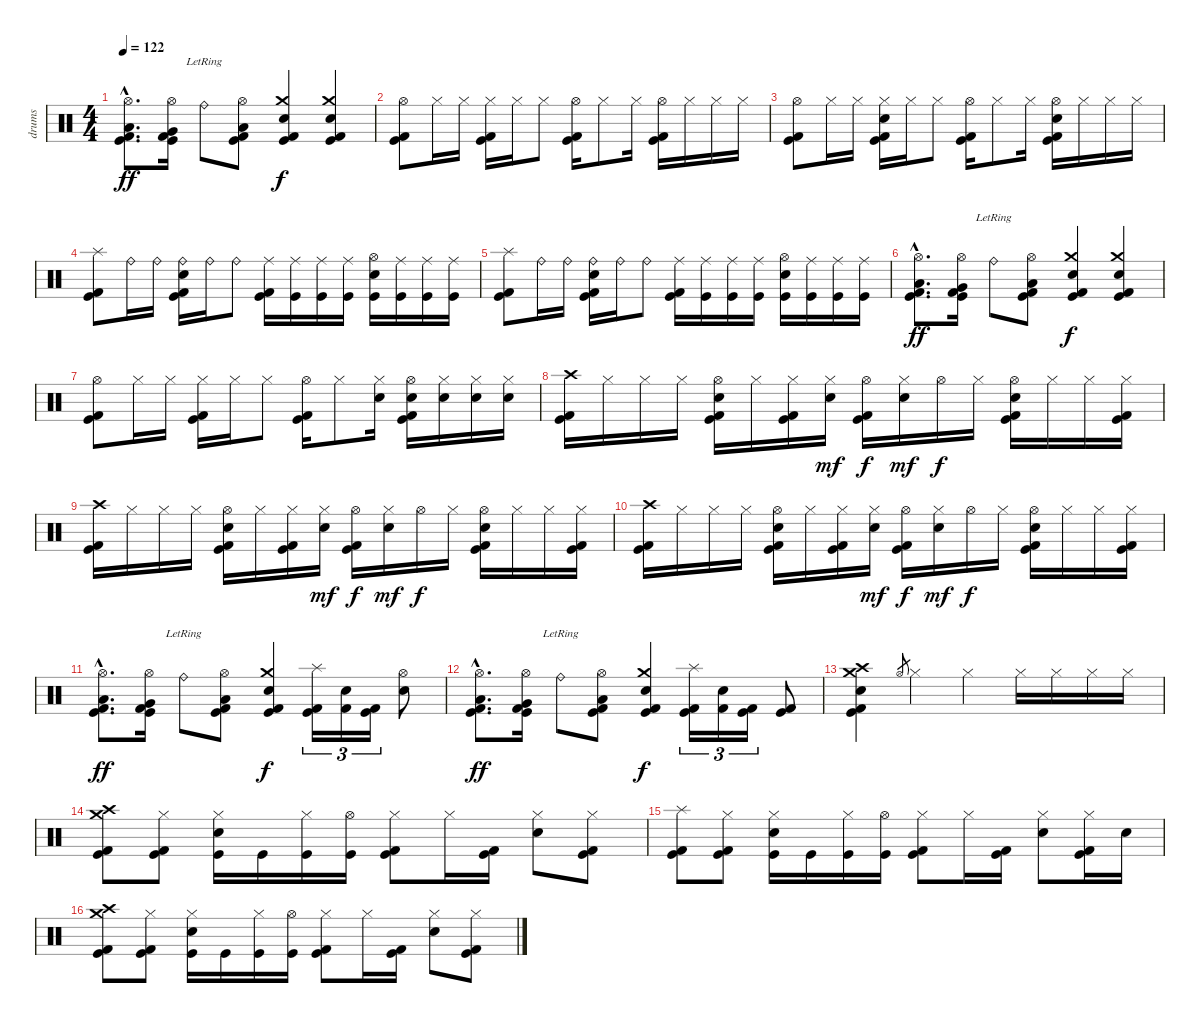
\track ("drums" "drums") {instrument percussion}
\staff {score}
\articulation defaults
\ts (4 4)
\tempo 122
\clef neutral
\ks c
("Hi-Hat (open)"{hac} "Low Floor Tom (hit)"{hac} "Kick (hit) 2"{hac} "Kick (hit)"{hac}).8{d dy ff} ("Hi-Hat (open)" "Very Low Tom (hit)" "Kick (hit) 2" "Kick (hit)").16 "Ride (bell)"{lr}.8 ("Hi-Hat (open)" "Low Tom (hit)" "Kick (hit) 2" "Kick (hit)").8 ("Crash medium (hit)" "Electric Snare (hit)" "Kick (hit) 2" "Kick (hit)").4{dy f} ("Crash medium (hit)" "Electric Snare (hit)" "Kick (hit)" "Kick (hit) 2").4 |
("Hi-Hat (open)" "Kick (hit) 2" "Kick (hit)").8 "Hi-Hat (closed)".16 "Hi-Hat (closed)".16 ("Hi-Hat (closed)" "Kick (hit) 2" "Kick (hit)").16 "Hi-Hat (closed)".16 "Hi-Hat (closed)".8 ("Hi-Hat (open)" "Kick (hit) 2" "Kick (hit)").16 "Hi-Hat (closed)".8 "Hi-Hat (closed)".16 ("Hi-Hat (open)" "Kick (hit) 2" "Kick (hit)").16 "Hi-Hat (closed)".16 "Hi-Hat (closed)".16 "Hi-Hat (closed)".16 |
("Hi-Hat (open)" "Kick (hit) 2" "Kick (hit)").8 "Hi-Hat (closed)".16 "Hi-Hat (closed)".16 ("Hi-Hat (closed)" "Electric Snare (hit)" "Kick (hit) 2" "Kick (hit)").16 "Hi-Hat (closed)".16 "Hi-Hat (closed)".8 ("Hi-Hat (open)" "Kick (hit) 2" "Kick (hit)").16 "Hi-Hat (closed)".8 "Hi-Hat (closed)".16 ("Hi-Hat (open)" "Electric Snare (hit)" "Kick (hit) 2" "Kick (hit)").16 "Hi-Hat (closed)".16 "Hi-Hat (closed)".16 "Hi-Hat (closed)".16 |
("Splash (hit)" "Kick (hit) 2" "Kick (hit)").8 "Ride (bell)".16 "Ride (bell)".16 ("Ride (bell)" "Electric Snare (hit)" "Kick (hit) 2" "Kick (hit)").16 "Ride (bell)".16 "Ride (bell)".8 ("Ride (middle)" "Kick (hit) 2" "Kick (hit)").16 ("Ride (middle)" "Kick (hit)").16 ("Ride (middle)" "Kick (hit)").16 ("Ride (middle)" "Kick (hit)").16 ("Hi-Hat (open)" "Electric Snare (hit)" "Kick (hit)").16 ("Ride (middle)" "Kick (hit)").16 ("Ride (middle)" "Kick (hit)").16 ("Ride (middle)" "Kick (hit)").16 |
("Splash (hit)" "Kick (hit) 2" "Kick (hit)").8 "Ride (bell)".16 "Ride (bell)".16 ("Ride (bell)" "Electric Snare (hit)" "Kick (hit) 2" "Kick (hit)").16 "Ride (bell)".16 "Ride (bell)".8 ("Ride (middle)" "Kick (hit) 2" "Kick (hit)").16 ("Ride (middle)" "Kick (hit)").16 ("Ride (middle)" "Kick (hit)").16 ("Ride (middle)" "Kick (hit)").16 ("Hi-Hat (open)" "Electric Snare (hit)" "Kick (hit)").16 ("Ride (middle)" "Kick (hit)").16 ("Ride (middle)" "Kick (hit)").16 ("Ride (middle)" "Kick (hit)").16 |
("Hi-Hat (open)"{hac} "Low Floor Tom (hit)"{hac} "Kick (hit) 2"{hac} "Kick (hit)"{hac}).8{d dy ff} ("Hi-Hat (open)" "Very Low Tom (hit)" "Kick (hit) 2" "Kick (hit)").16 "Ride (bell)"{lr}.8 ("Hi-Hat (open)" "Low Tom (hit)" "Kick (hit) 2" "Kick (hit)").8 ("Crash medium (hit)" "Electric Snare (hit)" "Kick (hit) 2" "Kick (hit)").4{dy f} ("Crash medium (hit)" "Electric Snare (hit)" "Kick (hit)" "Kick (hit) 2").4 |
("Hi-Hat (open)" "Kick (hit) 2" "Kick (hit)").8 "Hi-Hat (closed)".16 "Hi-Hat (closed)".16 ("Hi-Hat (closed)" "Kick (hit) 2" "Kick (hit)").16 "Hi-Hat (closed)".16 "Hi-Hat (closed)".8 ("Hi-Hat (open)" "Kick (hit) 2" "Kick (hit)").16 "Hi-Hat (closed)".8 ("Hi-Hat (closed)" "Electric Snare (hit)").16 ("Hi-Hat (open)" "Electric Snare (hit)" "Kick (hit) 2" "Kick (hit)").16 ("Hi-Hat (closed)" "Electric Snare (hit)").16 ("Hi-Hat (closed)" "Electric Snare (hit)").16 ("Hi-Hat (closed)" "Electric Snare (hit)").16 |
("Crash high (hit)" "Kick (hit) 2" "Kick (hit)").16 "Hi-Hat (closed)".16 "Hi-Hat (closed)".16 "Hi-Hat (closed)".16 ("Hi-Hat (open)" "Electric Snare (hit)" "Kick (hit) 2" "Kick (hit)").16 "Hi-Hat (closed)".16 ("Hi-Hat (closed)" "Kick (hit) 2" "Kick (hit)").16 ("Hi-Hat (closed)" "Electric Snare (hit)").16{dy mf} ("Hi-Hat (open)" "Kick (hit)" "Kick (hit) 2").16{dy f} ("Hi-Hat (closed)" "Electric Snare (hit)").16{dy mf} "Hi-Hat (open)".16{dy f} "Hi-Hat (closed)".16 ("Hi-Hat (open)" "Electric Snare (hit)" "Kick (hit)" "Kick (hit) 2").16 "Hi-Hat (closed)".16 "Hi-Hat (closed)".16 ("Hi-Hat (closed)" "Kick (hit) 2" "Kick (hit)").16 |
("Crash high (hit)" "Kick (hit) 2" "Kick (hit)").16 "Hi-Hat (closed)".16 "Hi-Hat (closed)".16 "Hi-Hat (closed)".16 ("Hi-Hat (open)" "Electric Snare (hit)" "Kick (hit) 2" "Kick (hit)").16 "Hi-Hat (closed)".16 ("Hi-Hat (closed)" "Kick (hit) 2" "Kick (hit)").16 ("Hi-Hat (closed)" "Electric Snare (hit)").16{dy mf} ("Hi-Hat (open)" "Kick (hit)" "Kick (hit) 2").16{dy f} ("Hi-Hat (closed)" "Electric Snare (hit)").16{dy mf} "Hi-Hat (open)".16{dy f} "Hi-Hat (closed)".16 ("Hi-Hat (open)" "Electric Snare (hit)" "Kick (hit)" "Kick (hit) 2").16 "Hi-Hat (closed)".16 "Hi-Hat (closed)".16 ("Hi-Hat (closed)" "Kick (hit) 2" "Kick (hit)").16 |
("Crash high (hit)" "Kick (hit) 2" "Kick (hit)").16 "Hi-Hat (closed)".16 "Hi-Hat (closed)".16 "Hi-Hat (closed)".16 ("Hi-Hat (open)" "Electric Snare (hit)" "Kick (hit) 2" "Kick (hit)").16 "Hi-Hat (closed)".16 ("Hi-Hat (closed)" "Kick (hit) 2" "Kick (hit)").16 ("Hi-Hat (closed)" "Electric Snare (hit)").16{dy mf} ("Hi-Hat (open)" "Kick (hit)" "Kick (hit) 2").16{dy f} ("Hi-Hat (closed)" "Electric Snare (hit)").16{dy mf} "Hi-Hat (open)".16{dy f} "Hi-Hat (closed)".16 ("Hi-Hat (open)" "Electric Snare (hit)" "Kick (hit)" "Kick (hit) 2").16 "Hi-Hat (closed)".16 "Hi-Hat (closed)".16 ("Hi-Hat (closed)" "Kick (hit) 2" "Kick (hit)").16 |
("Hi-Hat (open)"{hac} "Low Floor Tom (hit)"{hac} "Kick (hit) 2"{hac} "Kick (hit)"{hac}).8{d dy ff} ("Hi-Hat (open)" "Very Low Tom (hit)" "Kick (hit) 2" "Kick (hit)").16 "Ride (bell)"{lr}.8 ("Hi-Hat (open)" "Low Tom (hit)" "Kick (hit) 2" "Kick (hit)").8 ("Crash medium (hit)" "Electric Snare (hit)" "Kick (hit) 2" "Kick (hit)").4{dy f} ("Splash (hit)" "Kick (hit)" "Kick (hit) 2").16{tu (3 2)} ("Metronome (bell)" "Kick (hit) 2").16{tu (3 2)} ("Kick (hit)" "Kick (hit) 2").16{tu (3 2)} ("Hi-Hat (open)" "Electric Snare (hit)").8 |
("Hi-Hat (open)"{hac} "Low Floor Tom (hit)"{hac} "Kick (hit) 2"{hac} "Kick (hit)"{hac}).8{d dy ff} ("Hi-Hat (open)" "Very Low Tom (hit)" "Kick (hit) 2" "Kick (hit)").16 "Ride (bell)"{lr}.8 ("Hi-Hat (open)" "Low Tom (hit)" "Kick (hit) 2" "Kick (hit)").8 ("Crash medium (hit)" "Electric Snare (hit)" "Kick (hit) 2" "Kick (hit)").4{dy f} ("Splash (hit)" "Kick (hit)" "Kick (hit) 2").16{tu (3 2)} ("Metronome (bell)" "Kick (hit) 2").16{tu (3 2)} ("Kick (hit)" "Kick (hit) 2").16{tu (3 2)} ("Kick (hit) 2" "Kick (hit)").8 |
("Crash medium (hit)" "Crash high (hit)" "Electric Snare (hit)" "Kick (hit) 2" "Kick (hit)").4 "Hi-Hat (open)".8{gr} "Hi-Hat (closed)".4 "Hi-Hat (closed)".4 "Hi-Hat (closed)".16 "Hi-Hat (closed)".16 "Hi-Hat (closed)".16 "Hi-Hat (closed)".16 |
("Crash high (hit)" "Crash medium (hit)" "Kick (hit) 2" "Kick (hit)").8 ("Hi-Hat (closed)" "Kick (hit) 2" "Kick (hit)").8 ("Hi-Hat (closed)" "Electric Snare (hit)" "Kick (hit)").16 "Kick (hit)".16 ("Hi-Hat (closed)" "Kick (hit)").16 ("Hi-Hat (open)" "Kick (hit)").16 ("Hi-Hat (closed)" "Kick (hit) 2" "Kick (hit)").8 "Hi-Hat (closed)".16 ("Kick (hit) 2" "Kick (hit)").16 ("Hi-Hat (closed)" "Electric Snare (hit)").8 ("Hi-Hat (closed)" "Kick (hit) 2" "Kick (hit)").8 |
("Splash (hit)" "Kick (hit) 2" "Kick (hit)").8 ("Hi-Hat (closed)" "Kick (hit) 2" "Kick (hit)").8 ("Hi-Hat (closed)" "Electric Snare (hit)" "Kick (hit)").16 "Kick (hit)".16 ("Hi-Hat (closed)" "Kick (hit)").16 ("Hi-Hat (open)" "Kick (hit)").16 ("Hi-Hat (closed)" "Kick (hit) 2" "Kick (hit)").8 "Hi-Hat (closed)".16 ("Kick (hit) 2" "Kick (hit)").16 ("Hi-Hat (closed)" "Electric Snare (hit)").8 ("Hi-Hat (closed)" "Kick (hit) 2" "Kick (hit)").16 "Electric Snare (hit)".16 |
("Crash high (hit)" "Crash medium (hit)" "Kick (hit) 2" "Kick (hit)").8 ("Hi-Hat (closed)" "Kick (hit) 2" "Kick (hit)").8 ("Hi-Hat (closed)" "Electric Snare (hit)" "Kick (hit)").16 "Kick (hit)".16 ("Hi-Hat (closed)" "Kick (hit)").16 ("Hi-Hat (open)" "Kick (hit)").16 ("Hi-Hat (closed)" "Kick (hit) 2" "Kick (hit)").8 "Hi-Hat (closed)".16 ("Kick (hit) 2" "Kick (hit)").16 ("Hi-Hat (closed)" "Electric Snare (hit)").8 ("Hi-Hat (closed)" "Kick (hit) 2" "Kick (hit)").8
